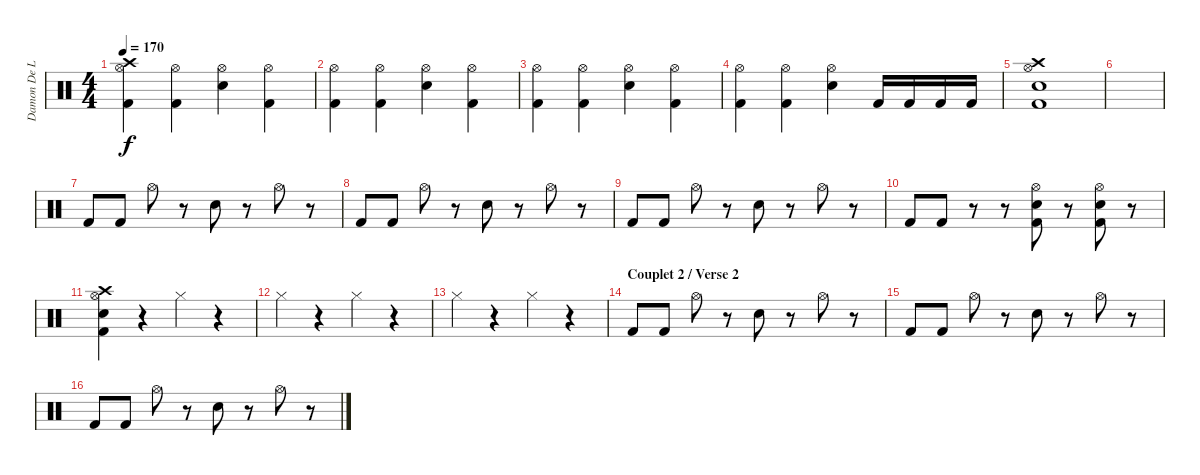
\track ("Damon De La Paz" "Damon De L") {instrument percussion}
\staff {score}
\articulation defaults
\ts (4 4)
\tempo 170
\clef neutral
\ks c
("Crash high (hit)" "Hi-Hat (open)" "Kick (hit) 2").4{dy f} ("Hi-Hat (open)" "Kick (hit) 2").4 ("Hi-Hat (open)" "Electric Snare (hit)").4 ("Hi-Hat (open)" "Kick (hit) 2").4 |
("Hi-Hat (open)" "Kick (hit) 2").4 ("Hi-Hat (open)" "Kick (hit) 2").4 ("Hi-Hat (open)" "Electric Snare (hit)").4 ("Hi-Hat (open)" "Kick (hit) 2").4 |
("Hi-Hat (open)" "Kick (hit) 2").4 ("Hi-Hat (open)" "Kick (hit) 2").4 ("Hi-Hat (open)" "Electric Snare (hit)").4 ("Hi-Hat (open)" "Kick (hit) 2").4 |
("Hi-Hat (open)" "Kick (hit) 2").4 ("Hi-Hat (open)" "Kick (hit) 2").4 ("Hi-Hat (open)" "Electric Snare (hit)").4 "Kick (hit) 2".16 "Kick (hit) 2".16 "Kick (hit) 2".16 "Kick (hit) 2".16 |
("Crash high (hit)" "Hi-Hat (open)" "Electric Snare (hit)" "Kick (hit) 2").1 |
|
"Kick (hit) 2".8 "Kick (hit) 2".8 "Hi-Hat (open)".8 r.8 "Electric Snare (hit)".8 r.8 "Hi-Hat (open)".8 r.8 |
"Kick (hit) 2".8 "Kick (hit) 2".8 "Hi-Hat (open)".8 r.8 "Electric Snare (hit)".8 r.8 "Hi-Hat (open)".8 r.8 |
"Kick (hit) 2".8 "Kick (hit) 2".8 "Hi-Hat (open)".8 r.8 "Electric Snare (hit)".8 r.8 "Hi-Hat (open)".8 r.8 |
"Kick (hit) 2".8 "Kick (hit) 2".8 r.8 r.8 ("Hi-Hat (open)" "Electric Snare (hit)" "Kick (hit) 2").8 r.8 ("Hi-Hat (open)" "Electric Snare (hit)" "Kick (hit) 2").8 r.8 |
("Crash high (hit)" "Hi-Hat (open)" "Electric Snare (hit)" "Kick (hit) 2").4 r.4 "Hi-Hat (closed)".4 r.4 |
"Hi-Hat (closed)".4 r.4 "Hi-Hat (closed)".4 r.4 |
"Hi-Hat (closed)".4 r.4 "Hi-Hat (closed)".4 r.4 |
\section ("" "Couplet 2 / Verse 2")
"Kick (hit) 2".8 "Kick (hit) 2".8 "Hi-Hat (open)".8 r.8 "Electric Snare (hit)".8 r.8 "Hi-Hat (open)".8 r.8 |
"Kick (hit) 2".8 "Kick (hit) 2".8 "Hi-Hat (open)".8 r.8 "Electric Snare (hit)".8 r.8 "Hi-Hat (open)".8 r.8 |
"Kick (hit) 2".8 "Kick (hit) 2".8 "Hi-Hat (open)".8 r.8 "Electric Snare (hit)".8 r.8 "Hi-Hat (open)".8 r.8
